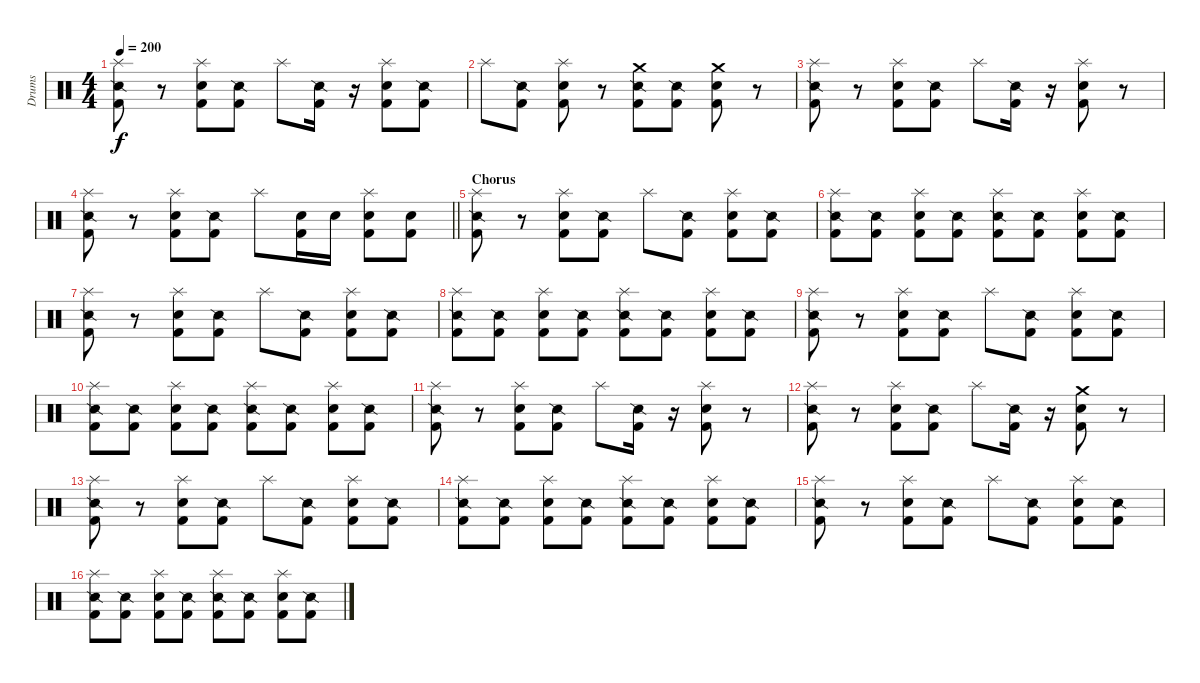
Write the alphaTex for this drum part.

\track ("Drums" "Drums") {instrument percussion}
\staff {score}
\articulation defaults
\ts (4 4)
\tempo 200
\clef neutral
\ks c
("Splash (hit)" "Snare (side stick) 2" "Kick (hit) 2").8{dy f} r.8 ("Splash (hit)" "Snare (hit) 2" "Kick (hit) 2").8 ("Snare (side stick) 2" "Kick (hit) 2").8 "Splash (hit)".8 ("Snare (side stick) 2" "Kick (hit) 2").16 r.16 ("Splash (hit)" "Snare (hit) 2" "Kick (hit) 2").8 ("Snare (side stick) 2" "Kick (hit) 2").8 |
"Splash (hit)".8 ("Snare (side stick) 2" "Kick (hit) 2").8 ("Splash (hit)" "Snare (hit) 2" "Kick (hit) 2").8 r.8 ("Crash medium (hit)" "Snare (side stick) 2" "Kick (hit) 2").8 ("Snare (side stick) 2" "Kick (hit) 2").8 ("Crash medium (hit)" "Snare (hit) 2" "Kick (hit) 2").8 r.8 |
("Splash (hit)" "Snare (side stick) 2" "Kick (hit) 2").8 r.8 ("Splash (hit)" "Snare (hit) 2" "Kick (hit) 2").8 ("Snare (side stick) 2" "Kick (hit) 2").8 "Splash (hit)".8 ("Snare (side stick) 2" "Kick (hit) 2").16 r.16 ("Splash (hit)" "Snare (hit) 2" "Kick (hit) 2").8 r.8 |
\barLineRight lightlight
("Splash (hit)" "Snare (side stick) 2" "Kick (hit) 2").8 r.8 ("Splash (hit)" "Snare (hit) 2" "Kick (hit) 2").8 ("Snare (side stick) 2" "Kick (hit) 2").8 "Splash (hit)".8 ("Snare (hit) 2" "Kick (hit) 2").16 "Snare (hit) 2".16 ("Splash (hit)" "Snare (hit) 2" "Kick (hit) 2").8 ("Snare (hit) 2" "Kick (hit) 2").8 |
\section ("" "Chorus")
("Splash (hit)" "Snare (side stick) 2" "Kick (hit) 2").8 r.8 ("Splash (hit)" "Snare (hit) 2" "Kick (hit) 2").8 ("Snare (side stick) 2" "Kick (hit) 2").8 "Splash (hit)".8 ("Snare (side stick) 2" "Kick (hit) 2").8 ("Splash (hit)" "Snare (hit) 2" "Kick (hit) 2").8 ("Snare (side stick) 2" "Kick (hit) 2").8 |
("Splash (hit)" "Snare (side stick) 2" "Kick (hit) 2").8 ("Snare (side stick) 2" "Kick (hit) 2").8 ("Splash (hit)" "Snare (hit) 2" "Kick (hit) 2").8 ("Snare (side stick) 2" "Kick (hit) 2").8 ("Splash (hit)" "Snare (side stick) 2" "Kick (hit) 2").8 ("Snare (side stick) 2" "Kick (hit) 2").8 ("Splash (hit)" "Snare (hit) 2" "Kick (hit) 2").8 ("Snare (side stick) 2" "Kick (hit) 2").8 |
("Splash (hit)" "Snare (side stick) 2" "Kick (hit) 2").8 r.8 ("Splash (hit)" "Snare (hit) 2" "Kick (hit) 2").8 ("Snare (side stick) 2" "Kick (hit) 2").8 "Splash (hit)".8 ("Snare (side stick) 2" "Kick (hit) 2").8 ("Splash (hit)" "Snare (hit) 2" "Kick (hit) 2").8 ("Snare (side stick) 2" "Kick (hit) 2").8 |
("Splash (hit)" "Snare (side stick) 2" "Kick (hit) 2").8 ("Snare (side stick) 2" "Kick (hit) 2").8 ("Splash (hit)" "Snare (hit) 2" "Kick (hit) 2").8 ("Snare (side stick) 2" "Kick (hit) 2").8 ("Splash (hit)" "Snare (side stick) 2" "Kick (hit) 2").8 ("Snare (side stick) 2" "Kick (hit) 2").8 ("Splash (hit)" "Snare (hit) 2" "Kick (hit) 2").8 ("Snare (side stick) 2" "Kick (hit) 2").8 |
("Splash (hit)" "Snare (side stick) 2" "Kick (hit) 2").8 r.8 ("Splash (hit)" "Snare (hit) 2" "Kick (hit) 2").8 ("Snare (side stick) 2" "Kick (hit) 2").8 "Splash (hit)".8 ("Snare (side stick) 2" "Kick (hit) 2").8 ("Splash (hit)" "Snare (hit) 2" "Kick (hit) 2").8 ("Snare (side stick) 2" "Kick (hit) 2").8 |
("Splash (hit)" "Snare (side stick) 2" "Kick (hit) 2").8 ("Snare (side stick) 2" "Kick (hit) 2").8 ("Splash (hit)" "Snare (hit) 2" "Kick (hit) 2").8 ("Snare (side stick) 2" "Kick (hit) 2").8 ("Splash (hit)" "Snare (side stick) 2" "Kick (hit) 2").8 ("Snare (side stick) 2" "Kick (hit) 2").8 ("Splash (hit)" "Snare (hit) 2" "Kick (hit) 2").8 ("Snare (side stick) 2" "Kick (hit) 2").8 |
("Splash (hit)" "Snare (side stick) 2" "Kick (hit) 2").8 r.8 ("Splash (hit)" "Snare (hit) 2" "Kick (hit) 2").8 ("Snare (side stick) 2" "Kick (hit) 2").8 "Splash (hit)".8 ("Snare (side stick) 2" "Kick (hit) 2").16 r.16 ("Splash (hit)" "Snare (hit) 2" "Kick (hit) 2").8 r.8 |
("Splash (hit)" "Snare (side stick) 2" "Kick (hit) 2").8 r.8 ("Splash (hit)" "Snare (hit) 2" "Kick (hit) 2").8 ("Snare (side stick) 2" "Kick (hit) 2").8 "Splash (hit)".8 ("Snare (side stick) 2" "Kick (hit) 2").16 r.16 ("Crash medium (hit)" "Snare (hit) 2" "Kick (hit) 2").8 r.8 |
("Splash (hit)" "Snare (side stick) 2" "Kick (hit) 2").8 r.8 ("Splash (hit)" "Snare (hit) 2" "Kick (hit) 2").8 ("Snare (side stick) 2" "Kick (hit) 2").8 "Splash (hit)".8 ("Snare (side stick) 2" "Kick (hit) 2").8 ("Splash (hit)" "Snare (hit) 2" "Kick (hit) 2").8 ("Snare (side stick) 2" "Kick (hit) 2").8 |
("Splash (hit)" "Snare (side stick) 2" "Kick (hit) 2").8 ("Snare (side stick) 2" "Kick (hit) 2").8 ("Splash (hit)" "Snare (hit) 2" "Kick (hit) 2").8 ("Snare (side stick) 2" "Kick (hit) 2").8 ("Splash (hit)" "Snare (side stick) 2" "Kick (hit) 2").8 ("Snare (side stick) 2" "Kick (hit) 2").8 ("Splash (hit)" "Snare (hit) 2" "Kick (hit) 2").8 ("Snare (side stick) 2" "Kick (hit) 2").8 |
("Splash (hit)" "Snare (side stick) 2" "Kick (hit) 2").8 r.8 ("Splash (hit)" "Snare (hit) 2" "Kick (hit) 2").8 ("Snare (side stick) 2" "Kick (hit) 2").8 "Splash (hit)".8 ("Snare (side stick) 2" "Kick (hit) 2").8 ("Splash (hit)" "Snare (hit) 2" "Kick (hit) 2").8 ("Snare (side stick) 2" "Kick (hit) 2").8 |
("Splash (hit)" "Snare (side stick) 2" "Kick (hit) 2").8 ("Snare (side stick) 2" "Kick (hit) 2").8 ("Splash (hit)" "Snare (hit) 2" "Kick (hit) 2").8 ("Snare (side stick) 2" "Kick (hit) 2").8 ("Splash (hit)" "Snare (side stick) 2" "Kick (hit) 2").8 ("Snare (side stick) 2" "Kick (hit) 2").8 ("Splash (hit)" "Snare (hit) 2" "Kick (hit) 2").8 ("Snare (side stick) 2" "Kick (hit) 2").8
